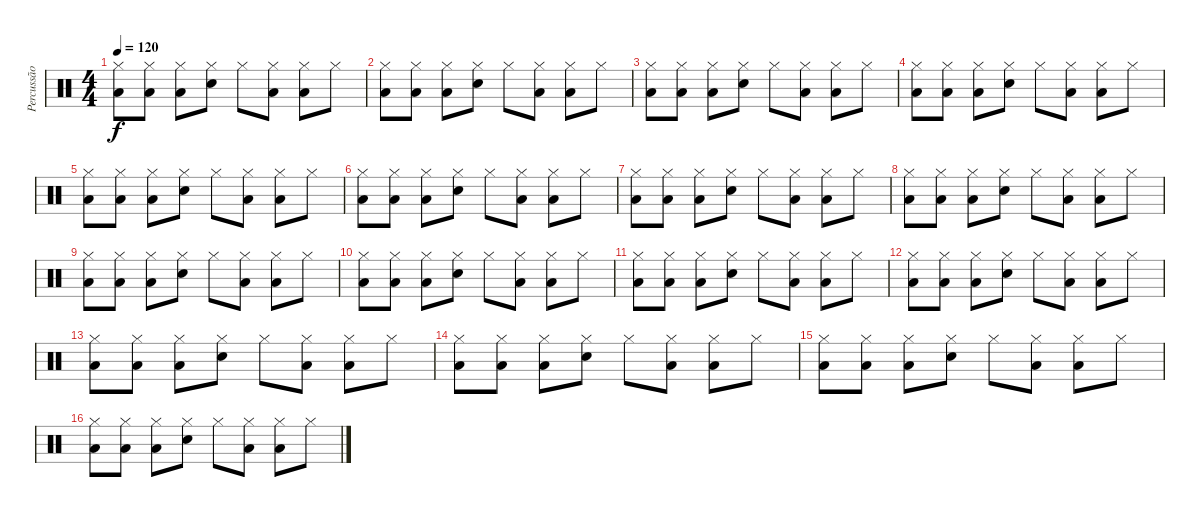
\track ("Percussão" "Percussão") {instrument percussion}
\staff {score}
\articulation defaults
\ts (4 4)
\tempo 120
\clef neutral
\ks c
("Low Floor Tom (hit)" "Hi-Hat (closed)").8{dy f} ("Low Floor Tom (hit)" "Hi-Hat (closed)").8 ("Low Floor Tom (hit)" "Hi-Hat (closed)").8 ("Snare (hit) 2" "Hi-Hat (closed)").8 "Hi-Hat (closed)".8 ("Low Floor Tom (hit)" "Hi-Hat (closed)").8 ("Low Floor Tom (hit)" "Hi-Hat (closed)").8 "Hi-Hat (closed)".8 |
("Low Floor Tom (hit)" "Hi-Hat (closed)").8 ("Low Floor Tom (hit)" "Hi-Hat (closed)").8 ("Low Floor Tom (hit)" "Hi-Hat (closed)").8 ("Snare (hit) 2" "Hi-Hat (closed)").8 "Hi-Hat (closed)".8 ("Low Floor Tom (hit)" "Hi-Hat (closed)").8 ("Low Floor Tom (hit)" "Hi-Hat (closed)").8 "Hi-Hat (closed)".8 |
("Low Floor Tom (hit)" "Hi-Hat (closed)").8 ("Low Floor Tom (hit)" "Hi-Hat (closed)").8 ("Low Floor Tom (hit)" "Hi-Hat (closed)").8 ("Snare (hit) 2" "Hi-Hat (closed)").8 "Hi-Hat (closed)".8 ("Low Floor Tom (hit)" "Hi-Hat (closed)").8 ("Low Floor Tom (hit)" "Hi-Hat (closed)").8 "Hi-Hat (closed)".8 |
("Low Floor Tom (hit)" "Hi-Hat (closed)").8 ("Low Floor Tom (hit)" "Hi-Hat (closed)").8 ("Low Floor Tom (hit)" "Hi-Hat (closed)").8 ("Snare (hit) 2" "Hi-Hat (closed)").8 "Hi-Hat (closed)".8 ("Low Floor Tom (hit)" "Hi-Hat (closed)").8 ("Low Floor Tom (hit)" "Hi-Hat (closed)").8 "Hi-Hat (closed)".8 |
("Low Floor Tom (hit)" "Hi-Hat (closed)").8 ("Low Floor Tom (hit)" "Hi-Hat (closed)").8 ("Low Floor Tom (hit)" "Hi-Hat (closed)").8 ("Snare (hit) 2" "Hi-Hat (closed)").8 "Hi-Hat (closed)".8 ("Low Floor Tom (hit)" "Hi-Hat (closed)").8 ("Low Floor Tom (hit)" "Hi-Hat (closed)").8 "Hi-Hat (closed)".8 |
("Low Floor Tom (hit)" "Hi-Hat (closed)").8 ("Low Floor Tom (hit)" "Hi-Hat (closed)").8 ("Low Floor Tom (hit)" "Hi-Hat (closed)").8 ("Snare (hit) 2" "Hi-Hat (closed)").8 "Hi-Hat (closed)".8 ("Low Floor Tom (hit)" "Hi-Hat (closed)").8 ("Low Floor Tom (hit)" "Hi-Hat (closed)").8 "Hi-Hat (closed)".8 |
("Low Floor Tom (hit)" "Hi-Hat (closed)").8 ("Low Floor Tom (hit)" "Hi-Hat (closed)").8 ("Low Floor Tom (hit)" "Hi-Hat (closed)").8 ("Snare (hit) 2" "Hi-Hat (closed)").8 "Hi-Hat (closed)".8 ("Low Floor Tom (hit)" "Hi-Hat (closed)").8 ("Low Floor Tom (hit)" "Hi-Hat (closed)").8 "Hi-Hat (closed)".8 |
("Low Floor Tom (hit)" "Hi-Hat (closed)").8 ("Low Floor Tom (hit)" "Hi-Hat (closed)").8 ("Low Floor Tom (hit)" "Hi-Hat (closed)").8 ("Snare (hit) 2" "Hi-Hat (closed)").8 "Hi-Hat (closed)".8 ("Low Floor Tom (hit)" "Hi-Hat (closed)").8 ("Low Floor Tom (hit)" "Hi-Hat (closed)").8 "Hi-Hat (closed)".8 |
("Low Floor Tom (hit)" "Hi-Hat (closed)").8 ("Low Floor Tom (hit)" "Hi-Hat (closed)").8 ("Low Floor Tom (hit)" "Hi-Hat (closed)").8 ("Snare (hit) 2" "Hi-Hat (closed)").8 "Hi-Hat (closed)".8 ("Low Floor Tom (hit)" "Hi-Hat (closed)").8 ("Low Floor Tom (hit)" "Hi-Hat (closed)").8 "Hi-Hat (closed)".8 |
("Low Floor Tom (hit)" "Hi-Hat (closed)").8 ("Low Floor Tom (hit)" "Hi-Hat (closed)").8 ("Low Floor Tom (hit)" "Hi-Hat (closed)").8 ("Snare (hit) 2" "Hi-Hat (closed)").8 "Hi-Hat (closed)".8 ("Low Floor Tom (hit)" "Hi-Hat (closed)").8 ("Low Floor Tom (hit)" "Hi-Hat (closed)").8 "Hi-Hat (closed)".8 |
("Low Floor Tom (hit)" "Hi-Hat (closed)").8 ("Low Floor Tom (hit)" "Hi-Hat (closed)").8 ("Low Floor Tom (hit)" "Hi-Hat (closed)").8 ("Snare (hit) 2" "Hi-Hat (closed)").8 "Hi-Hat (closed)".8 ("Low Floor Tom (hit)" "Hi-Hat (closed)").8 ("Low Floor Tom (hit)" "Hi-Hat (closed)").8 "Hi-Hat (closed)".8 |
("Low Floor Tom (hit)" "Hi-Hat (closed)").8 ("Low Floor Tom (hit)" "Hi-Hat (closed)").8 ("Low Floor Tom (hit)" "Hi-Hat (closed)").8 ("Snare (hit) 2" "Hi-Hat (closed)").8 "Hi-Hat (closed)".8 ("Low Floor Tom (hit)" "Hi-Hat (closed)").8 ("Low Floor Tom (hit)" "Hi-Hat (closed)").8 "Hi-Hat (closed)".8 |
("Low Floor Tom (hit)" "Hi-Hat (closed)").8 ("Low Floor Tom (hit)" "Hi-Hat (closed)").8 ("Low Floor Tom (hit)" "Hi-Hat (closed)").8 ("Snare (hit) 2" "Hi-Hat (closed)").8 "Hi-Hat (closed)".8 ("Low Floor Tom (hit)" "Hi-Hat (closed)").8 ("Low Floor Tom (hit)" "Hi-Hat (closed)").8 "Hi-Hat (closed)".8 |
("Low Floor Tom (hit)" "Hi-Hat (closed)").8 ("Low Floor Tom (hit)" "Hi-Hat (closed)").8 ("Low Floor Tom (hit)" "Hi-Hat (closed)").8 ("Snare (hit) 2" "Hi-Hat (closed)").8 "Hi-Hat (closed)".8 ("Low Floor Tom (hit)" "Hi-Hat (closed)").8 ("Low Floor Tom (hit)" "Hi-Hat (closed)").8 "Hi-Hat (closed)".8 |
("Low Floor Tom (hit)" "Hi-Hat (closed)").8 ("Low Floor Tom (hit)" "Hi-Hat (closed)").8 ("Low Floor Tom (hit)" "Hi-Hat (closed)").8 ("Snare (hit) 2" "Hi-Hat (closed)").8 "Hi-Hat (closed)".8 ("Low Floor Tom (hit)" "Hi-Hat (closed)").8 ("Low Floor Tom (hit)" "Hi-Hat (closed)").8 "Hi-Hat (closed)".8 |
("Low Floor Tom (hit)" "Hi-Hat (closed)").8 ("Low Floor Tom (hit)" "Hi-Hat (closed)").8 ("Low Floor Tom (hit)" "Hi-Hat (closed)").8 ("Snare (hit) 2" "Hi-Hat (closed)").8 "Hi-Hat (closed)".8 ("Low Floor Tom (hit)" "Hi-Hat (closed)").8 ("Low Floor Tom (hit)" "Hi-Hat (closed)").8 "Hi-Hat (closed)".8
